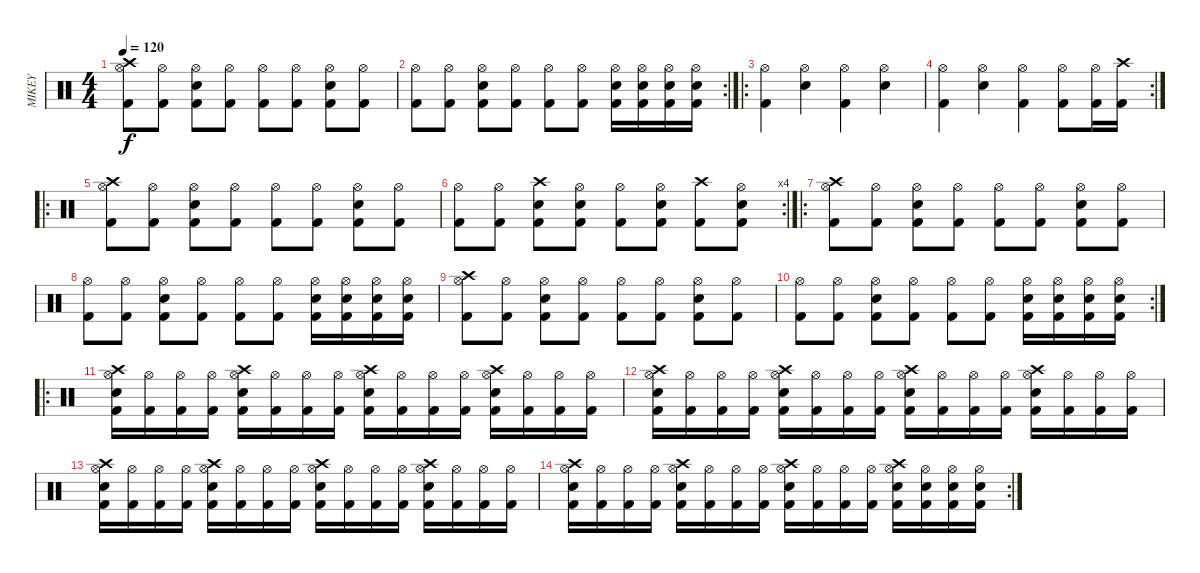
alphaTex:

\track ("MIKEY" "MIKEY") {instrument percussion}
\staff {score}
\articulation defaults
\ts (4 4)
\tempo 120
\clef neutral
\ks c
("Hi-Hat (open)" "Crash high (hit)" "Kick (hit) 2").8{dy f} ("Hi-Hat (open)" "Kick (hit) 2").8 ("Hi-Hat (open)" "Electric Snare (hit)" "Kick (hit) 2").8 ("Hi-Hat (open)" "Kick (hit) 2").8 ("Hi-Hat (open)" "Kick (hit) 2").8 ("Hi-Hat (open)" "Kick (hit) 2").8 ("Hi-Hat (open)" "Electric Snare (hit)" "Kick (hit) 2").8 ("Hi-Hat (open)" "Kick (hit) 2").8 |
\rc 2
("Hi-Hat (open)" "Kick (hit) 2").8 ("Hi-Hat (open)" "Kick (hit) 2").8 ("Hi-Hat (open)" "Electric Snare (hit)" "Kick (hit) 2").8 ("Hi-Hat (open)" "Kick (hit) 2").8 ("Hi-Hat (open)" "Kick (hit) 2").8 ("Hi-Hat (open)" "Kick (hit) 2").8 ("Hi-Hat (open)" "Electric Snare (hit)" "Kick (hit) 2").16 ("Hi-Hat (open)" "Electric Snare (hit)" "Kick (hit) 2").16 ("Hi-Hat (open)" "Electric Snare (hit)" "Kick (hit) 2").16 ("Hi-Hat (open)" "Electric Snare (hit)" "Kick (hit) 2").16 |
\ro
("Hi-Hat (open)" "Kick (hit) 2").4 ("Hi-Hat (open)" "Electric Snare (hit)").4 ("Hi-Hat (open)" "Kick (hit) 2").4 ("Hi-Hat (open)" "Electric Snare (hit)").4 |
\rc 2
("Hi-Hat (open)" "Kick (hit) 2").4 ("Hi-Hat (open)" "Electric Snare (hit)").4 ("Hi-Hat (open)" "Kick (hit) 2").4 ("Hi-Hat (open)" "Kick (hit) 2").8 ("Hi-Hat (open)" "Kick (hit) 2").16 ("Crash high (hit)" "Kick (hit) 2").16 |
\ro
("Hi-Hat (open)" "Crash high (hit)" "Kick (hit) 2").8 ("Hi-Hat (open)" "Kick (hit) 2").8 ("Hi-Hat (open)" "Electric Snare (hit)" "Kick (hit) 2").8 ("Hi-Hat (open)" "Kick (hit) 2").8 ("Hi-Hat (open)" "Kick (hit) 2").8 ("Hi-Hat (open)" "Kick (hit) 2").8 ("Hi-Hat (open)" "Electric Snare (hit)" "Kick (hit) 2").8 ("Hi-Hat (open)" "Kick (hit) 2").8 |
\rc 4
("Hi-Hat (open)" "Kick (hit) 2").8 ("Hi-Hat (open)" "Kick (hit) 2").8 ("Crash high (hit)" "Electric Snare (hit)" "Kick (hit) 2").8 ("Hi-Hat (open)" "Electric Snare (hit)" "Kick (hit) 2").8 ("Hi-Hat (open)" "Kick (hit) 2").8 ("Hi-Hat (open)" "Electric Snare (hit)" "Kick (hit) 2").8 ("Crash high (hit)" "Kick (hit) 2").8 ("Hi-Hat (open)" "Electric Snare (hit)" "Kick (hit) 2").8 |
\ro
("Hi-Hat (open)" "Crash high (hit)" "Kick (hit) 2").8 ("Hi-Hat (open)" "Kick (hit) 2").8 ("Hi-Hat (open)" "Electric Snare (hit)" "Kick (hit) 2").8 ("Hi-Hat (open)" "Kick (hit) 2").8 ("Hi-Hat (open)" "Kick (hit) 2").8 ("Hi-Hat (open)" "Kick (hit) 2").8 ("Hi-Hat (open)" "Electric Snare (hit)" "Kick (hit) 2").8 ("Hi-Hat (open)" "Kick (hit) 2").8 |
("Hi-Hat (open)" "Kick (hit) 2").8 ("Hi-Hat (open)" "Kick (hit) 2").8 ("Hi-Hat (open)" "Electric Snare (hit)" "Kick (hit) 2").8 ("Hi-Hat (open)" "Kick (hit) 2").8 ("Hi-Hat (open)" "Kick (hit) 2").8 ("Hi-Hat (open)" "Kick (hit) 2").8 ("Hi-Hat (open)" "Electric Snare (hit)" "Kick (hit) 2").16 ("Hi-Hat (open)"{x} "Electric Snare (hit)"{x} "Kick (hit) 2"{x}).16 ("Hi-Hat (open)" "Electric Snare (hit)" "Kick (hit) 2").16 ("Hi-Hat (open)"{x} "Electric Snare (hit)"{x} "Kick (hit) 2"{x}).16 |
("Hi-Hat (open)" "Crash high (hit)" "Kick (hit) 2").8 ("Hi-Hat (open)" "Kick (hit) 2").8 ("Hi-Hat (open)" "Electric Snare (hit)" "Kick (hit) 2").8 ("Hi-Hat (open)" "Kick (hit) 2").8 ("Hi-Hat (open)" "Kick (hit) 2").8 ("Hi-Hat (open)" "Kick (hit) 2").8 ("Hi-Hat (open)" "Electric Snare (hit)" "Kick (hit) 2").8 ("Hi-Hat (open)" "Kick (hit) 2").8 |
\rc 2
("Hi-Hat (open)" "Kick (hit) 2").8 ("Hi-Hat (open)" "Kick (hit) 2").8 ("Hi-Hat (open)" "Electric Snare (hit)" "Kick (hit) 2").8 ("Hi-Hat (open)" "Kick (hit) 2").8 ("Hi-Hat (open)" "Kick (hit) 2").8 ("Hi-Hat (open)" "Kick (hit) 2").8 ("Hi-Hat (open)" "Electric Snare (hit)" "Kick (hit) 2").16 ("Hi-Hat (open)" "Electric Snare (hit)" "Kick (hit) 2").16 ("Hi-Hat (open)" "Electric Snare (hit)" "Kick (hit) 2").16 ("Hi-Hat (open)" "Electric Snare (hit)" "Kick (hit) 2").16 |
\ro
("Crash high (hit)" "Hi-Hat (open)" "Electric Snare (hit)" "Kick (hit) 2").16 ("Hi-Hat (open)" "Kick (hit) 2").16 ("Hi-Hat (open)" "Kick (hit) 2").16 ("Hi-Hat (open)" "Kick (hit) 2").16 ("Crash high (hit)" "Hi-Hat (open)" "Electric Snare (hit)" "Kick (hit) 2").16 ("Hi-Hat (open)" "Kick (hit) 2").16 ("Hi-Hat (open)" "Kick (hit) 2").16 ("Hi-Hat (open)" "Kick (hit) 2").16 ("Crash high (hit)" "Hi-Hat (open)" "Electric Snare (hit)" "Kick (hit) 2").16 ("Hi-Hat (open)" "Kick (hit) 2").16 ("Hi-Hat (open)" "Kick (hit) 2").16 ("Hi-Hat (open)" "Kick (hit) 2").16 ("Crash high (hit)" "Hi-Hat (open)" "Electric Snare (hit)" "Kick (hit) 2").16 ("Hi-Hat (open)" "Kick (hit) 2").16 ("Hi-Hat (open)" "Kick (hit) 2").16 ("Hi-Hat (open)" "Kick (hit) 2").16 |
("Crash high (hit)" "Hi-Hat (open)" "Electric Snare (hit)" "Kick (hit) 2").16 ("Hi-Hat (open)" "Kick (hit) 2").16 ("Hi-Hat (open)" "Kick (hit) 2").16 ("Hi-Hat (open)" "Kick (hit) 2").16 ("Crash high (hit)" "Hi-Hat (open)" "Electric Snare (hit)" "Kick (hit) 2").16 ("Hi-Hat (open)" "Kick (hit) 2").16 ("Hi-Hat (open)" "Kick (hit) 2").16 ("Hi-Hat (open)" "Kick (hit) 2").16 ("Crash high (hit)" "Hi-Hat (open)" "Electric Snare (hit)" "Kick (hit) 2").16 ("Hi-Hat (open)" "Kick (hit) 2").16 ("Hi-Hat (open)" "Kick (hit) 2").16 ("Hi-Hat (open)" "Kick (hit) 2").16 ("Crash high (hit)" "Hi-Hat (open)" "Electric Snare (hit)" "Kick (hit) 2").16 ("Hi-Hat (open)" "Kick (hit) 2").16 ("Hi-Hat (open)" "Kick (hit) 2").16 ("Hi-Hat (open)" "Kick (hit) 2").16 |
("Crash high (hit)" "Hi-Hat (open)" "Electric Snare (hit)" "Kick (hit) 2").16 ("Hi-Hat (open)" "Kick (hit) 2").16 ("Hi-Hat (open)" "Kick (hit) 2").16 ("Hi-Hat (open)" "Kick (hit) 2").16 ("Crash high (hit)" "Hi-Hat (open)" "Electric Snare (hit)" "Kick (hit) 2").16 ("Hi-Hat (open)" "Kick (hit) 2").16 ("Hi-Hat (open)" "Kick (hit) 2").16 ("Hi-Hat (open)" "Kick (hit) 2").16 ("Crash high (hit)" "Hi-Hat (open)" "Electric Snare (hit)" "Kick (hit) 2").16 ("Hi-Hat (open)" "Kick (hit) 2").16 ("Hi-Hat (open)" "Kick (hit) 2").16 ("Hi-Hat (open)" "Kick (hit) 2").16 ("Crash high (hit)" "Hi-Hat (open)" "Electric Snare (hit)" "Kick (hit) 2").16 ("Hi-Hat (open)" "Kick (hit) 2").16 ("Hi-Hat (open)" "Kick (hit) 2").16 ("Hi-Hat (open)" "Kick (hit) 2").16 |
\rc 2
("Crash high (hit)" "Hi-Hat (open)" "Electric Snare (hit)" "Kick (hit) 2").16 ("Hi-Hat (open)" "Kick (hit) 2").16 ("Hi-Hat (open)" "Kick (hit) 2").16 ("Hi-Hat (open)" "Kick (hit) 2").16 ("Crash high (hit)" "Hi-Hat (open)" "Electric Snare (hit)" "Kick (hit) 2").16 ("Hi-Hat (open)" "Kick (hit) 2").16 ("Hi-Hat (open)" "Kick (hit) 2").16 ("Hi-Hat (open)" "Kick (hit) 2").16 ("Crash high (hit)" "Hi-Hat (open)" "Electric Snare (hit)" "Kick (hit) 2").16 ("Hi-Hat (open)" "Kick (hit) 2").16 ("Hi-Hat (open)" "Kick (hit) 2").16 ("Hi-Hat (open)" "Kick (hit) 2").16 ("Crash high (hit)" "Hi-Hat (open)" "Electric Snare (hit)" "Kick (hit) 2").16 ("Hi-Hat (open)" "Electric Snare (hit)" "Kick (hit) 2").16 ("Hi-Hat (open)" "Electric Snare (hit)" "Kick (hit) 2").16 ("Hi-Hat (open)" "Electric Snare (hit)" "Kick (hit) 2").16
